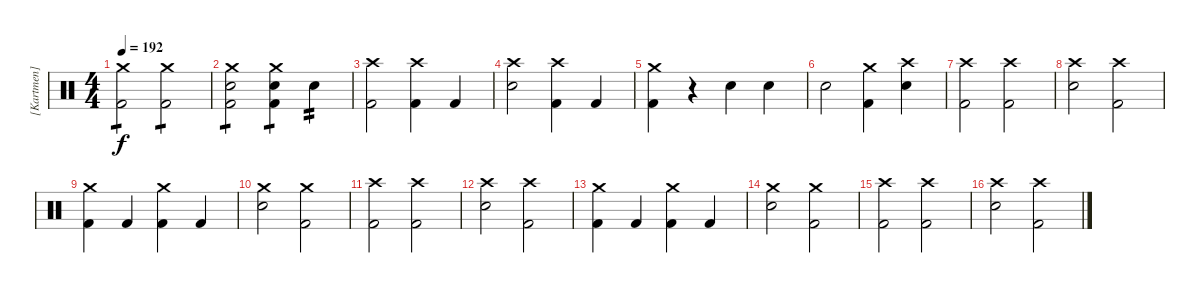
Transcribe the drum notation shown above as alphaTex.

\track ("[Kartmen] - Drums" "[Kartmen] ") {instrument percussion}
\staff {score}
\articulation defaults
\ts (4 4)
\tempo 192
\clef neutral
\ks c
("Crash medium (hit)" "Kick (hit) 2").2{tp 1 dy f} ("Crash medium (hit)" "Kick (hit) 2").2{tp 1} |
("Crash medium (hit)" "Kick (hit) 2" "Snare (hit) 2").2{tp 1} ("Crash medium (hit)" "Kick (hit) 2" "Snare (hit) 2").4{tp 1} "Snare (hit) 2".4{tp 2} |
("Crash high (hit)" "Kick (hit) 2").2 ("Crash high (hit)" "Kick (hit) 2").4 "Kick (hit) 2".4 |
("Crash high (hit)" "Snare (hit) 2").2 ("Crash high (hit)" "Kick (hit) 2").4 "Kick (hit) 2".4 |
("Crash medium (hit)" "Kick (hit) 2").4 r.4 "Snare (hit) 2".4 "Snare (hit) 2".4 |
"Snare (hit) 2"{tr (38 16)}.2 ("Crash medium (hit)" "Kick (hit) 2").4 ("Crash high (hit)" "Snare (hit) 2"{tr (38 16)}).4 |
("Crash high (hit)" "Kick (hit) 2").2 ("Crash high (hit)" "Kick (hit) 2").2 |
("Crash high (hit)" "Snare (hit) 2").2 ("Crash high (hit)" "Kick (hit) 2").2 |
("Crash medium (hit)" "Kick (hit) 2").4 "Kick (hit) 2".4 ("Crash medium (hit)" "Kick (hit) 2").4 "Kick (hit) 2".4 |
("Crash medium (hit)" "Snare (hit) 2").2 ("Crash medium (hit)" "Kick (hit) 2").2 |
("Crash high (hit)" "Kick (hit) 2").2 ("Crash high (hit)" "Kick (hit) 2").2 |
("Crash high (hit)" "Snare (hit) 2").2 ("Crash high (hit)" "Kick (hit) 2").2 |
("Crash medium (hit)" "Kick (hit) 2").4 "Kick (hit) 2".4 ("Crash medium (hit)" "Kick (hit) 2").4 "Kick (hit) 2".4 |
("Crash medium (hit)" "Snare (hit) 2").2 ("Crash medium (hit)" "Kick (hit) 2").2 |
("Crash high (hit)" "Kick (hit) 2").2 ("Crash high (hit)" "Kick (hit) 2").2 |
("Crash high (hit)" "Snare (hit) 2").2 ("Crash high (hit)" "Kick (hit) 2").2
